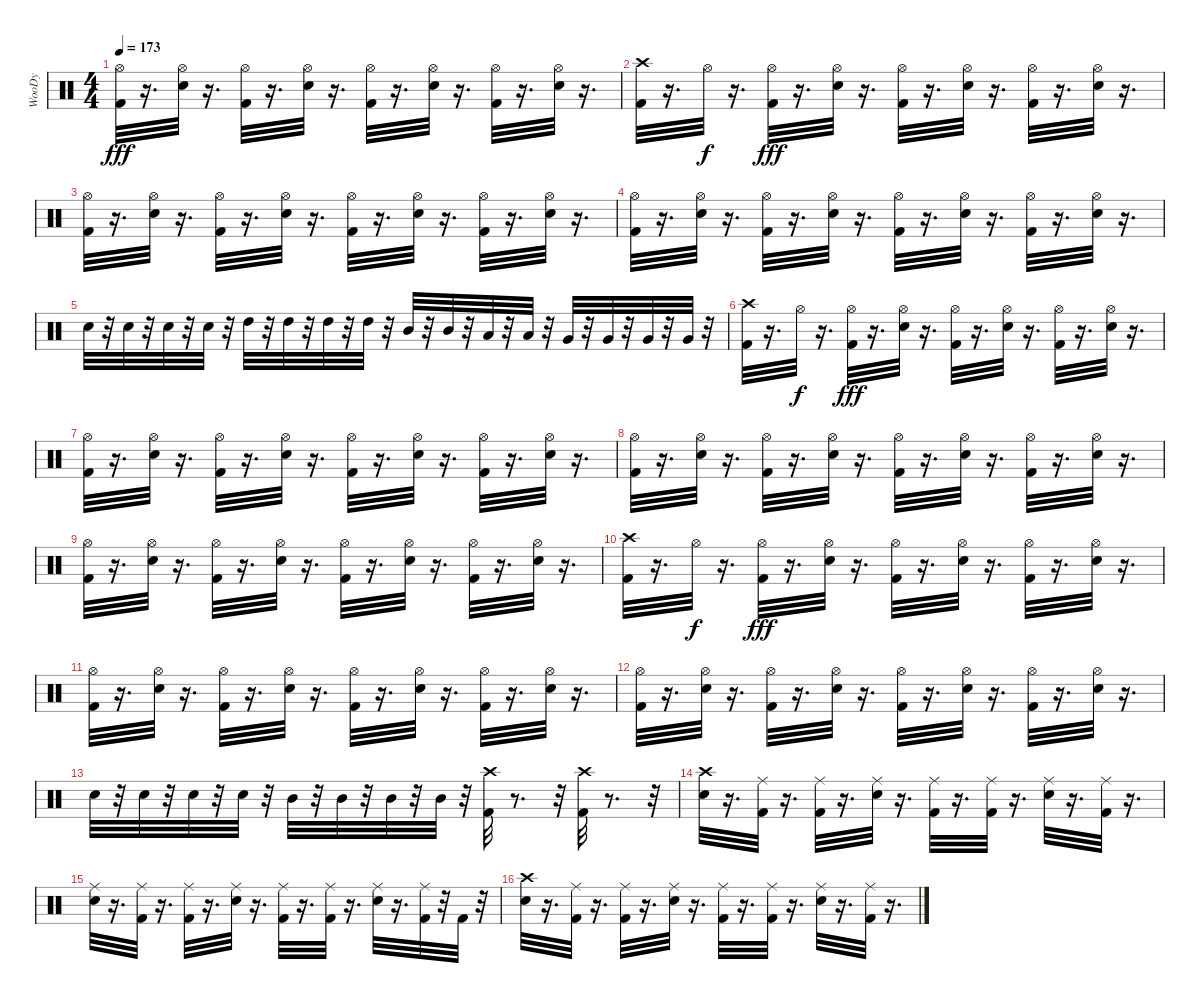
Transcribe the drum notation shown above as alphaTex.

\track ("WooDy" "WooDy") {instrument percussion}
\staff {score}
\articulation defaults
\ts (4 4)
\tempo 173
\clef neutral
\ks c
("Kick (hit) 2" "Hi-Hat (open)").32{dy fff} r.16{d} ("Electric Snare (hit)" "Hi-Hat (open)").32 r.16{d} ("Kick (hit) 2" "Hi-Hat (open)").32 r.16{d} ("Electric Snare (hit)" "Hi-Hat (open)").32 r.16{d} ("Kick (hit) 2" "Hi-Hat (open)").32 r.16{d} ("Electric Snare (hit)" "Hi-Hat (open)").32 r.16{d} ("Kick (hit) 2" "Hi-Hat (open)").32 r.16{d} ("Electric Snare (hit)" "Hi-Hat (open)").32 r.16{d} |
("Kick (hit) 2" "Crash high (hit)").32 r.16{d} "Hi-Hat (open)".32{dy f} r.16{d} ("Kick (hit) 2" "Hi-Hat (open)").32{dy fff} r.16{d} ("Electric Snare (hit)" "Hi-Hat (open)").32 r.16{d} ("Kick (hit) 2" "Hi-Hat (open)").32 r.16{d} ("Electric Snare (hit)" "Hi-Hat (open)").32 r.16{d} ("Kick (hit) 2" "Hi-Hat (open)").32 r.16{d} ("Electric Snare (hit)" "Hi-Hat (open)").32 r.16{d} |
("Kick (hit) 2" "Hi-Hat (open)").32 r.16{d} ("Electric Snare (hit)" "Hi-Hat (open)").32 r.16{d} ("Kick (hit) 2" "Hi-Hat (open)").32 r.16{d} ("Electric Snare (hit)" "Hi-Hat (open)").32 r.16{d} ("Kick (hit) 2" "Hi-Hat (open)").32 r.16{d} ("Electric Snare (hit)" "Hi-Hat (open)").32 r.16{d} ("Kick (hit) 2" "Hi-Hat (open)").32 r.16{d} ("Electric Snare (hit)" "Hi-Hat (open)").32 r.16{d} |
("Kick (hit) 2" "Hi-Hat (open)").32 r.16{d} ("Electric Snare (hit)" "Hi-Hat (open)").32 r.16{d} ("Kick (hit) 2" "Hi-Hat (open)").32 r.16{d} ("Electric Snare (hit)" "Hi-Hat (open)").32 r.16{d} ("Kick (hit) 2" "Hi-Hat (open)").32 r.16{d} ("Electric Snare (hit)" "Hi-Hat (open)").32 r.16{d} ("Kick (hit) 2" "Hi-Hat (open)").32 r.16{d} ("Electric Snare (hit)" "Hi-Hat (open)").32 r.16{d} |
"Electric Snare (hit)".32 r.32 "Electric Snare (hit)".32 r.32 "Electric Snare (hit)".32 r.32 "Electric Snare (hit)".32 r.32 "High Tom (hit)".32 r.32 "High Tom (hit)".32 r.32 "High Tom (hit)".32 r.32 "High Tom (hit)".32 r.32 "Mid Tom (hit)".32 r.32 "Mid Tom (hit)".32 r.32 "Low Tom (hit)".32 r.32 "Low Tom (hit)".32 r.32 "Very Low Tom (hit)".32 r.32 "Very Low Tom (hit)".32 r.32 "Very Low Tom (hit)".32 r.32 "Very Low Tom (hit)".32 r.32 |
("Kick (hit) 2" "Crash high (hit)").32 r.16{d} "Hi-Hat (open)".32{dy f} r.16{d} ("Kick (hit) 2" "Hi-Hat (open)").32{dy fff} r.16{d} ("Electric Snare (hit)" "Hi-Hat (open)").32 r.16{d} ("Kick (hit) 2" "Hi-Hat (open)").32 r.16{d} ("Electric Snare (hit)" "Hi-Hat (open)").32 r.16{d} ("Kick (hit) 2" "Hi-Hat (open)").32 r.16{d} ("Electric Snare (hit)" "Hi-Hat (open)").32 r.16{d} |
("Kick (hit) 2" "Hi-Hat (open)").32 r.16{d} ("Electric Snare (hit)" "Hi-Hat (open)").32 r.16{d} ("Kick (hit) 2" "Hi-Hat (open)").32 r.16{d} ("Electric Snare (hit)" "Hi-Hat (open)").32 r.16{d} ("Kick (hit) 2" "Hi-Hat (open)").32 r.16{d} ("Electric Snare (hit)" "Hi-Hat (open)").32 r.16{d} ("Kick (hit) 2" "Hi-Hat (open)").32 r.16{d} ("Electric Snare (hit)" "Hi-Hat (open)").32 r.16{d} |
("Kick (hit) 2" "Hi-Hat (open)").32 r.16{d} ("Electric Snare (hit)" "Hi-Hat (open)").32 r.16{d} ("Kick (hit) 2" "Hi-Hat (open)").32 r.16{d} ("Electric Snare (hit)" "Hi-Hat (open)").32 r.16{d} ("Kick (hit) 2" "Hi-Hat (open)").32 r.16{d} ("Electric Snare (hit)" "Hi-Hat (open)").32 r.16{d} ("Kick (hit) 2" "Hi-Hat (open)").32 r.16{d} ("Electric Snare (hit)" "Hi-Hat (open)").32 r.16{d} |
("Kick (hit) 2" "Hi-Hat (open)").32 r.16{d} ("Electric Snare (hit)" "Hi-Hat (open)").32 r.16{d} ("Kick (hit) 2" "Hi-Hat (open)").32 r.16{d} ("Electric Snare (hit)" "Hi-Hat (open)").32 r.16{d} ("Kick (hit) 2" "Hi-Hat (open)").32 r.16{d} ("Electric Snare (hit)" "Hi-Hat (open)").32 r.16{d} ("Kick (hit) 2" "Hi-Hat (open)").32 r.16{d} ("Electric Snare (hit)" "Hi-Hat (open)").32 r.16{d} |
("Kick (hit) 2" "Crash high (hit)").32 r.16{d} "Hi-Hat (open)".32{dy f} r.16{d} ("Kick (hit) 2" "Hi-Hat (open)").32{dy fff} r.16{d} ("Electric Snare (hit)" "Hi-Hat (open)").32 r.16{d} ("Kick (hit) 2" "Hi-Hat (open)").32 r.16{d} ("Electric Snare (hit)" "Hi-Hat (open)").32 r.16{d} ("Kick (hit) 2" "Hi-Hat (open)").32 r.16{d} ("Electric Snare (hit)" "Hi-Hat (open)").32 r.16{d} |
("Kick (hit) 2" "Hi-Hat (open)").32 r.16{d} ("Electric Snare (hit)" "Hi-Hat (open)").32 r.16{d} ("Kick (hit) 2" "Hi-Hat (open)").32 r.16{d} ("Electric Snare (hit)" "Hi-Hat (open)").32 r.16{d} ("Kick (hit) 2" "Hi-Hat (open)").32 r.16{d} ("Electric Snare (hit)" "Hi-Hat (open)").32 r.16{d} ("Kick (hit) 2" "Hi-Hat (open)").32 r.16{d} ("Electric Snare (hit)" "Hi-Hat (open)").32 r.16{d} |
("Kick (hit) 2" "Hi-Hat (open)").32 r.16{d} ("Electric Snare (hit)" "Hi-Hat (open)").32 r.16{d} ("Kick (hit) 2" "Hi-Hat (open)").32 r.16{d} ("Electric Snare (hit)" "Hi-Hat (open)").32 r.16{d} ("Kick (hit) 2" "Hi-Hat (open)").32 r.16{d} ("Electric Snare (hit)" "Hi-Hat (open)").32 r.16{d} ("Kick (hit) 2" "Hi-Hat (open)").32 r.16{d} ("Electric Snare (hit)" "Hi-Hat (open)").32 r.16{d} |
"Electric Snare (hit)".32 r.32 "Electric Snare (hit)".32 r.32 "Electric Snare (hit)".32 r.32 "Electric Snare (hit)".32 r.32 "Mid Tom (hit)".32 r.32 "Mid Tom (hit)".32 r.32 "Mid Tom (hit)".32 r.32 "Mid Tom (hit)".32 r.32 ("Kick (hit) 2" "Crash high (hit)").32 r.8{d} r.32 ("Kick (hit) 2" "Crash high (hit)").32 r.8{d} r.32 |
("Electric Snare (hit)" "Crash high (hit)").32 r.16{d} ("Kick (hit) 2" "Ride (middle)").32 r.16{d} ("Kick (hit) 2" "Ride (middle)").32 r.16{d} ("Electric Snare (hit)" "Ride (middle)").32 r.16{d} ("Kick (hit) 2" "Ride (middle)").32 r.16{d} ("Kick (hit) 2" "Ride (middle)").32 r.16{d} ("Electric Snare (hit)" "Ride (middle)").32 r.16{d} ("Kick (hit) 2" "Ride (middle)").32 r.16{d} |
("Electric Snare (hit)" "Ride (middle)").32 r.16{d} ("Kick (hit) 2" "Ride (middle)").32 r.16{d} ("Kick (hit) 2" "Ride (middle)").32 r.16{d} ("Electric Snare (hit)" "Ride (middle)").32 r.16{d} ("Kick (hit) 2" "Ride (middle)").32 r.16{d} ("Kick (hit) 2" "Ride (middle)").32 r.16{d} ("Electric Snare (hit)" "Ride (middle)").32 r.16{d} ("Kick (hit) 2" "Ride (middle)").32 r.32 "Kick (hit) 2".32 r.32 |
("Electric Snare (hit)" "Crash high (hit)").32 r.16{d} ("Kick (hit) 2" "Ride (middle)").32 r.16{d} ("Kick (hit) 2" "Ride (middle)").32 r.16{d} ("Electric Snare (hit)" "Ride (middle)").32 r.16{d} ("Kick (hit) 2" "Ride (middle)").32 r.16{d} ("Kick (hit) 2" "Ride (middle)").32 r.16{d} ("Electric Snare (hit)" "Ride (middle)").32 r.16{d} ("Kick (hit) 2" "Ride (middle)").32 r.16{d}
